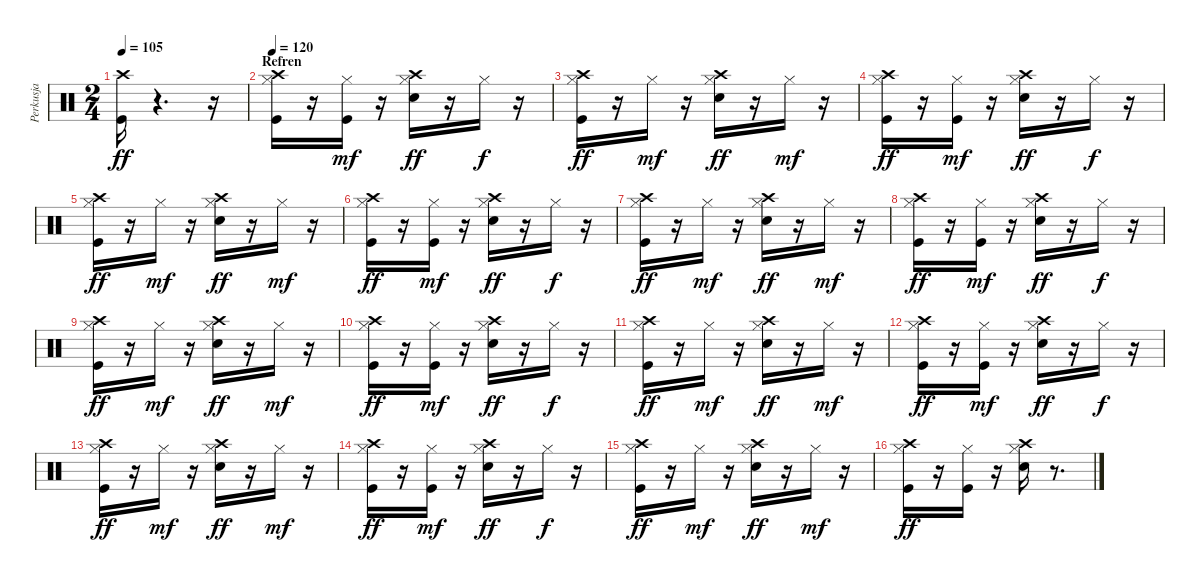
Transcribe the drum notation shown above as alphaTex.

\track ("Perkusja" "Perkusja") {instrument percussion}
\staff {score}
\articulation defaults
\ts (2 4)
\tempo 105
\clef neutral
\ks c
("Kick (hit)" "Crash high (hit)").16{dy ff} r.4{d} r.16 |
\section ("" "Refren")
\tempo 120
("Kick (hit)" "Hi-Hat (closed)" "Crash high (hit)").16 r.16 ("Kick (hit)" "Hi-Hat (closed)").16{dy mf} r.16 ("Snare (hit) 2" "Hi-Hat (closed)" "Crash high (hit)").16{dy ff} r.16 "Hi-Hat (closed)".16{dy f} r.16 |
("Kick (hit)" "Hi-Hat (closed)" "Crash high (hit)").16{dy ff} r.16 "Hi-Hat (closed)".16{dy mf} r.16 ("Snare (hit) 2" "Hi-Hat (closed)" "Crash high (hit)").16{dy ff} r.16 "Hi-Hat (closed)".16{dy mf} r.16 |
("Kick (hit)" "Hi-Hat (closed)" "Crash high (hit)").16{dy ff} r.16 ("Kick (hit)" "Hi-Hat (closed)").16{dy mf} r.16 ("Snare (hit) 2" "Hi-Hat (closed)" "Crash high (hit)").16{dy ff} r.16 "Hi-Hat (closed)".16{dy f} r.16 |
("Kick (hit)" "Hi-Hat (closed)" "Crash high (hit)").16{dy ff} r.16 "Hi-Hat (closed)".16{dy mf} r.16 ("Snare (hit) 2" "Hi-Hat (closed)" "Crash high (hit)").16{dy ff} r.16 "Hi-Hat (closed)".16{dy mf} r.16 |
("Kick (hit)" "Hi-Hat (closed)" "Crash high (hit)").16{dy ff} r.16 ("Kick (hit)" "Hi-Hat (closed)").16{dy mf} r.16 ("Snare (hit) 2" "Hi-Hat (closed)" "Crash high (hit)").16{dy ff} r.16 "Hi-Hat (closed)".16{dy f} r.16 |
("Kick (hit)" "Hi-Hat (closed)" "Crash high (hit)").16{dy ff} r.16 "Hi-Hat (closed)".16{dy mf} r.16 ("Snare (hit) 2" "Hi-Hat (closed)" "Crash high (hit)").16{dy ff} r.16 "Hi-Hat (closed)".16{dy mf} r.16 |
("Kick (hit)" "Hi-Hat (closed)" "Crash high (hit)").16{dy ff} r.16 ("Kick (hit)" "Hi-Hat (closed)").16{dy mf} r.16 ("Snare (hit) 2" "Hi-Hat (closed)" "Crash high (hit)").16{dy ff} r.16 "Hi-Hat (closed)".16{dy f} r.16 |
("Kick (hit)" "Hi-Hat (closed)" "Crash high (hit)").16{dy ff} r.16 "Hi-Hat (closed)".16{dy mf} r.16 ("Snare (hit) 2" "Hi-Hat (closed)" "Crash high (hit)").16{dy ff} r.16 "Hi-Hat (closed)".16{dy mf} r.16 |
("Kick (hit)" "Hi-Hat (closed)" "Crash high (hit)").16{dy ff} r.16 ("Kick (hit)" "Hi-Hat (closed)").16{dy mf} r.16 ("Snare (hit) 2" "Hi-Hat (closed)" "Crash high (hit)").16{dy ff} r.16 "Hi-Hat (closed)".16{dy f} r.16 |
("Kick (hit)" "Hi-Hat (closed)" "Crash high (hit)").16{dy ff} r.16 "Hi-Hat (closed)".16{dy mf} r.16 ("Snare (hit) 2" "Hi-Hat (closed)" "Crash high (hit)").16{dy ff} r.16 "Hi-Hat (closed)".16{dy mf} r.16 |
("Kick (hit)" "Hi-Hat (closed)" "Crash high (hit)").16{dy ff} r.16 ("Kick (hit)" "Hi-Hat (closed)").16{dy mf} r.16 ("Snare (hit) 2" "Hi-Hat (closed)" "Crash high (hit)").16{dy ff} r.16 "Hi-Hat (closed)".16{dy f} r.16 |
("Kick (hit)" "Hi-Hat (closed)" "Crash high (hit)").16{dy ff} r.16 "Hi-Hat (closed)".16{dy mf} r.16 ("Snare (hit) 2" "Hi-Hat (closed)" "Crash high (hit)").16{dy ff} r.16 "Hi-Hat (closed)".16{dy mf} r.16 |
("Kick (hit)" "Hi-Hat (closed)" "Crash high (hit)").16{dy ff} r.16 ("Kick (hit)" "Hi-Hat (closed)").16{dy mf} r.16 ("Snare (hit) 2" "Hi-Hat (closed)" "Crash high (hit)").16{dy ff} r.16 "Hi-Hat (closed)".16{dy f} r.16 |
("Kick (hit)" "Hi-Hat (closed)" "Crash high (hit)").16{dy ff} r.16 "Hi-Hat (closed)".16{dy mf} r.16 ("Snare (hit) 2" "Hi-Hat (closed)" "Crash high (hit)").16{dy ff} r.16 "Hi-Hat (closed)".16{dy mf} r.16 |
("Kick (hit)" "Hi-Hat (closed)" "Crash high (hit)").16{dy ff} r.16 ("Kick (hit)" "Hi-Hat (closed)").16 r.16 ("Snare (hit) 2" "Hi-Hat (closed)" "Crash high (hit)").16 r.8{d}
